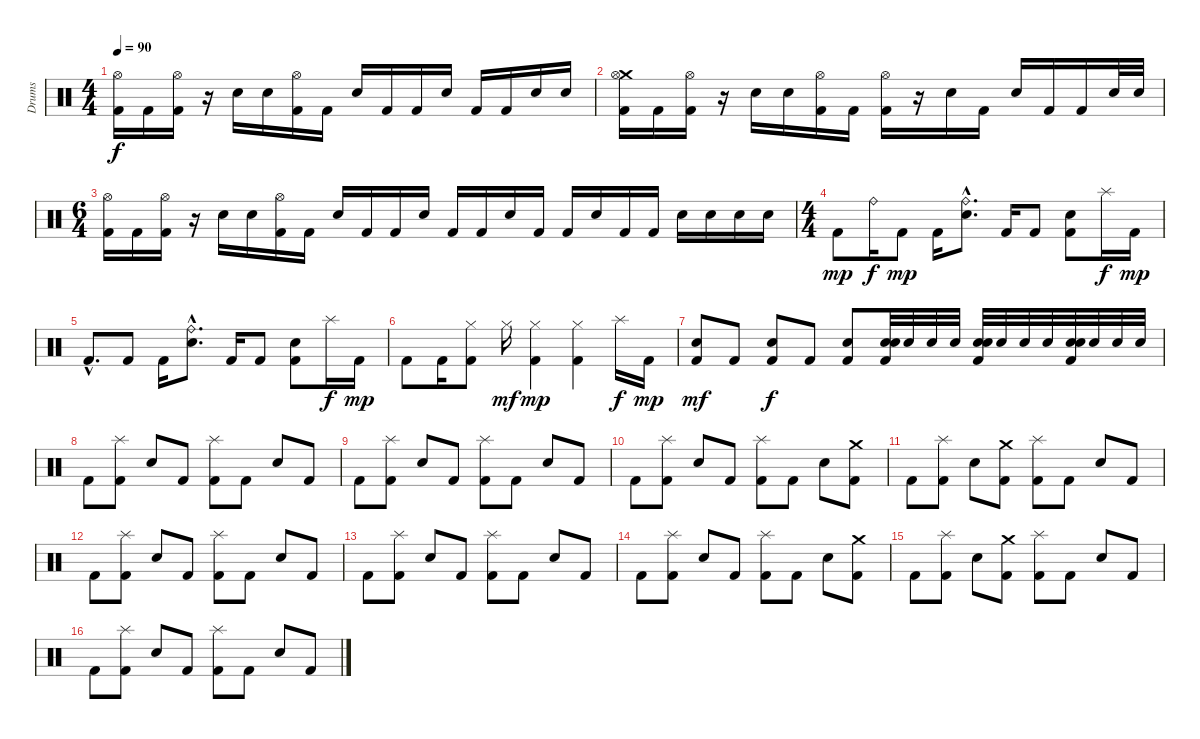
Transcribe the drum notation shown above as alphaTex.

\track ("Drums" "Drums") {instrument percussion}
\staff {score}
\articulation defaults
\ts (4 4)
\tempo 90
\clef neutral
\ks c
("Hi-Hat (open)" "Kick (hit) 2").16{dy f} "Kick (hit) 2".16 ("Hi-Hat (open)" "Kick (hit) 2").16 r.16 "Electric Snare (hit)".16 "Electric Snare (hit)".16 ("Hi-Hat (open)" "Kick (hit) 2").16 "Kick (hit) 2".16 "Electric Snare (hit)".16 "Kick (hit) 2".16 "Kick (hit) 2".16 "Electric Snare (hit)".16 "Kick (hit) 2".16 "Kick (hit) 2".16 "Electric Snare (hit)".16 "Snare (hit) 2".16 |
("Crash medium (hit)" "Hi-Hat (open)" "Kick (hit) 2").16 "Kick (hit) 2".16 ("Hi-Hat (open)" "Kick (hit) 2").16 r.16 "Electric Snare (hit)".16 "Electric Snare (hit)".16 ("Hi-Hat (open)" "Kick (hit) 2").16 "Kick (hit) 2".16 ("Hi-Hat (open)" "Kick (hit) 2").16 r.16 "Electric Snare (hit)".16 "Kick (hit) 2".16 "Electric Snare (hit)".16 "Kick (hit) 2".16 "Kick (hit) 2".16 "Electric Snare (hit)".32 "Electric Snare (hit)".32 |
\ts (6 4)
("Hi-Hat (open)" "Kick (hit) 2").16 "Kick (hit) 2".16 ("Hi-Hat (open)" "Kick (hit) 2").16 r.16 "Electric Snare (hit)".16 "Electric Snare (hit)".16 ("Hi-Hat (open)" "Kick (hit) 2").16 "Kick (hit) 2".16 "Electric Snare (hit)".16 "Kick (hit) 2".16 "Kick (hit) 2".16 "Electric Snare (hit)".16 "Kick (hit) 2".16 "Kick (hit) 2".16 "Electric Snare (hit)".16 "Kick (hit) 2".16 "Kick (hit) 2".16 "Electric Snare (hit)".16 "Kick (hit) 2".16 "Kick (hit) 2".16 "Electric Snare (hit)".16 "Snare (hit) 2".16 "Electric Snare (hit)".16 "Electric Snare (hit)".16 |
\ts (4 4)
"Kick (hit) 2".8{dy mp} "Ride (bell)".16{dy f} "Kick (hit) 2".8{dy mp} "Kick (hit) 2".16 ("Ride (bell)"{hac} "Snare (hit) 2"{hac}).8{d} "Kick (hit) 2".16 "Kick (hit) 2".8 ("Snare (hit) 2" "Kick (hit) 2").8 "Splash (hit)".16{dy f} "Kick (hit) 2".16{dy mp} |
"Kick (hit) 2"{hac}.8{d} "Kick (hit) 2".8 "Kick (hit) 2".16 ("Ride (bell)"{hac} "Snare (hit) 2"{hac}).8{d} "Kick (hit) 2".16 "Kick (hit) 2".8 ("Snare (hit) 2" "Kick (hit) 2").8 "Splash (hit)".16{dy f} "Kick (hit) 2".16{dy mp} |
"Kick (hit) 2".8 "Kick (hit) 2".16 ("Hi-Hat (closed)" "Kick (hit) 2").8 "Hi-Hat (closed)".16{dy mf} ("Hi-Hat (closed)" "Kick (hit) 2").4{dy mp} ("Hi-Hat (closed)" "Kick (hit) 2").4 "Splash (hit)".16{dy f} "Kick (hit) 2".16{dy mp} |
("Snare (hit) 2" "Kick (hit) 2").8{dy mf} "Kick (hit) 2".8 ("Snare (hit) 2" "Kick (hit) 2").8{dy f} "Kick (hit) 2".8 ("Snare (hit) 2" "Kick (hit) 2").8 ("Electric Snare (hit)" "Snare (hit) 2" "Kick (hit) 2").32 "Electric Snare (hit)".32 "Electric Snare (hit)".32 "Electric Snare (hit)".32 ("Electric Snare (hit)" "Snare (hit) 2" "Kick (hit) 2").32 "Electric Snare (hit)".32 "Electric Snare (hit)".32 "Electric Snare (hit)".32 ("Electric Snare (hit)" "Snare (hit) 2" "Kick (hit) 2").32 "Electric Snare (hit)".32 "Electric Snare (hit)".32 "Electric Snare (hit)".32 |
"Kick (hit) 2".8 ("Splash (hit)" "Kick (hit) 2").8 "Electric Snare (hit)".8 "Kick (hit) 2".8 ("Splash (hit)" "Kick (hit) 2").8 "Kick (hit) 2".8 "Electric Snare (hit)".8 "Kick (hit) 2".8 |
"Kick (hit) 2".8 ("Splash (hit)" "Kick (hit) 2").8 "Electric Snare (hit)".8 "Kick (hit) 2".8 ("Splash (hit)" "Kick (hit) 2").8 "Kick (hit) 2".8 "Electric Snare (hit)".8 "Kick (hit) 2".8 |
"Kick (hit) 2".8 ("Splash (hit)" "Kick (hit) 2").8 "Electric Snare (hit)".8 "Kick (hit) 2".8 ("Splash (hit)" "Kick (hit) 2").8 "Kick (hit) 2".8 "Snare (hit) 2".8 ("Crash medium (hit)" "Kick (hit) 2").8 |
"Kick (hit) 2".8 ("Splash (hit)" "Kick (hit) 2").8 "Electric Snare (hit)".8 ("Crash medium (hit)" "Kick (hit) 2").8 ("Splash (hit)" "Kick (hit) 2").8 "Kick (hit) 2".8 "Electric Snare (hit)".8 "Kick (hit) 2".8 |
"Kick (hit) 2".8 ("Splash (hit)" "Kick (hit) 2").8 "Electric Snare (hit)".8 "Kick (hit) 2".8 ("Splash (hit)" "Kick (hit) 2").8 "Kick (hit) 2".8 "Electric Snare (hit)".8 "Kick (hit) 2".8 |
"Kick (hit) 2".8 ("Splash (hit)" "Kick (hit) 2").8 "Electric Snare (hit)".8 "Kick (hit) 2".8 ("Splash (hit)" "Kick (hit) 2").8 "Kick (hit) 2".8 "Electric Snare (hit)".8 "Kick (hit) 2".8 |
"Kick (hit) 2".8 ("Splash (hit)" "Kick (hit) 2").8 "Electric Snare (hit)".8 "Kick (hit) 2".8 ("Splash (hit)" "Kick (hit) 2").8 "Kick (hit) 2".8 "Snare (hit) 2".8 ("Crash medium (hit)" "Kick (hit) 2").8 |
"Kick (hit) 2".8 ("Splash (hit)" "Kick (hit) 2").8 "Electric Snare (hit)".8 ("Crash medium (hit)" "Kick (hit) 2").8 ("Splash (hit)" "Kick (hit) 2").8 "Kick (hit) 2".8 "Electric Snare (hit)".8 "Kick (hit) 2".8 |
"Kick (hit) 2".8 ("Splash (hit)" "Kick (hit) 2").8 "Electric Snare (hit)".8 "Kick (hit) 2".8 ("Splash (hit)" "Kick (hit) 2").8 "Kick (hit) 2".8 "Electric Snare (hit)".8 "Kick (hit) 2".8
